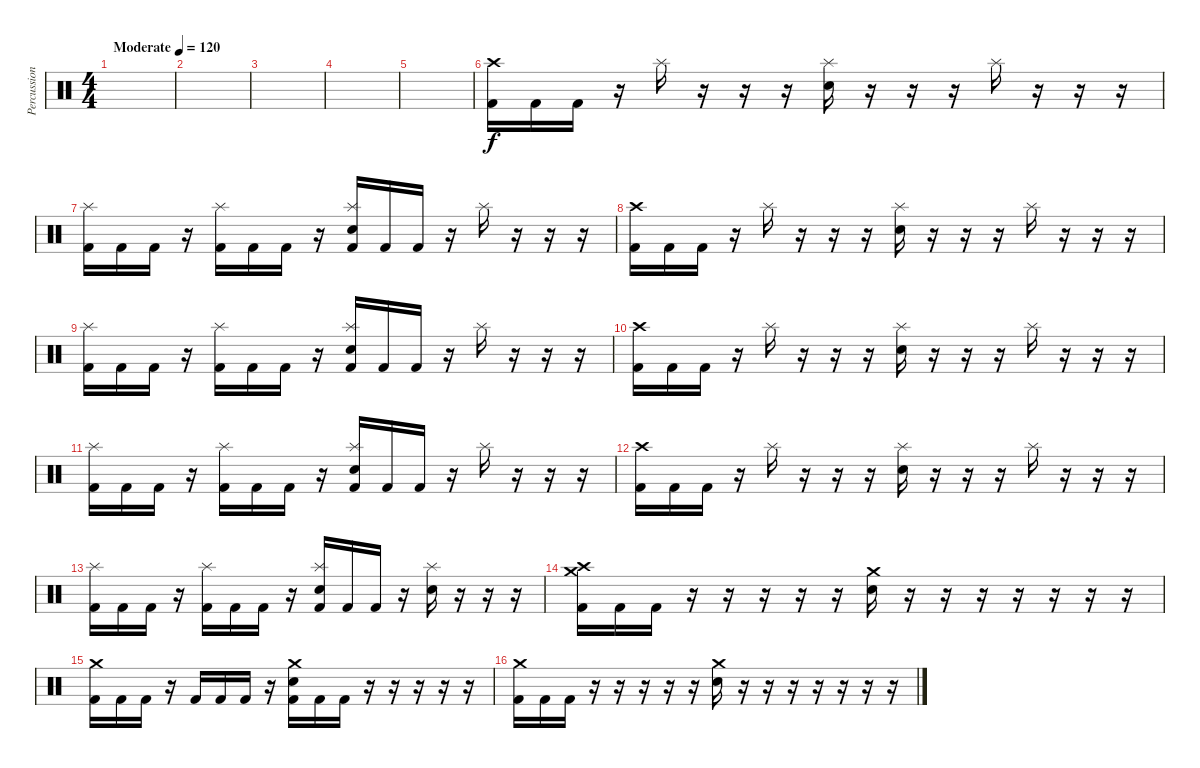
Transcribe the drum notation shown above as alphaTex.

\track ("Percussion" "Percussion") {instrument percussion}
\staff {score}
\articulation defaults
\ts (4 4)
\tempo (120 "Moderate")
\clef neutral
\ks c
|
|
|
|
|
("Crash high (hit)" "Kick (hit) 2").16 "Kick (hit) 2".16 "Kick (hit) 2".16 r.16 "Splash (hit)".16 r.16 r.16 r.16 ("Splash (hit)" "Electric Snare (hit)").16 r.16 r.16 r.16 "Splash (hit)".16 r.16 r.16 r.16 |
("Splash (hit)" "Kick (hit) 2").16 "Kick (hit) 2".16 "Kick (hit) 2".16 r.16 ("Splash (hit)" "Kick (hit) 2").16 "Kick (hit) 2".16 "Kick (hit) 2".16 r.16 ("Splash (hit)" "Electric Snare (hit)" "Kick (hit) 2").16 "Kick (hit) 2".16 "Kick (hit) 2".16 r.16 "Splash (hit)".16 r.16 r.16 r.16 |
("Crash high (hit)" "Kick (hit) 2").16 "Kick (hit) 2".16 "Kick (hit) 2".16 r.16 "Splash (hit)".16 r.16 r.16 r.16 ("Splash (hit)" "Electric Snare (hit)").16 r.16 r.16 r.16 "Splash (hit)".16 r.16 r.16 r.16 |
("Splash (hit)" "Kick (hit) 2").16 "Kick (hit) 2".16 "Kick (hit) 2".16 r.16 ("Splash (hit)" "Kick (hit) 2").16 "Kick (hit) 2".16 "Kick (hit) 2".16 r.16 ("Splash (hit)" "Electric Snare (hit)" "Kick (hit) 2").16 "Kick (hit) 2".16 "Kick (hit) 2".16 r.16 "Splash (hit)".16 r.16 r.16 r.16 |
("Crash high (hit)" "Kick (hit) 2").16 "Kick (hit) 2".16 "Kick (hit) 2".16 r.16 "Splash (hit)".16 r.16 r.16 r.16 ("Splash (hit)" "Electric Snare (hit)").16 r.16 r.16 r.16 "Splash (hit)".16 r.16 r.16 r.16 |
("Splash (hit)" "Kick (hit) 2").16 "Kick (hit) 2".16 "Kick (hit) 2".16 r.16 ("Splash (hit)" "Kick (hit) 2").16 "Kick (hit) 2".16 "Kick (hit) 2".16 r.16 ("Splash (hit)" "Electric Snare (hit)" "Kick (hit) 2").16 "Kick (hit) 2".16 "Kick (hit) 2".16 r.16 "Splash (hit)".16 r.16 r.16 r.16 |
("Crash high (hit)" "Kick (hit) 2").16 "Kick (hit) 2".16 "Kick (hit) 2".16 r.16 "Splash (hit)".16 r.16 r.16 r.16 ("Splash (hit)" "Electric Snare (hit)").16 r.16 r.16 r.16 "Splash (hit)".16 r.16 r.16 r.16 |
("Splash (hit)" "Kick (hit) 2").16 "Kick (hit) 2".16 "Kick (hit) 2".16 r.16 ("Splash (hit)" "Kick (hit) 2").16 "Kick (hit) 2".16 "Kick (hit) 2".16 r.16 ("Splash (hit)" "Electric Snare (hit)" "Kick (hit) 2").16 "Kick (hit) 2".16 "Kick (hit) 2".16 r.16 ("Splash (hit)" "Electric Snare (hit)").16 r.16 r.16 r.16 |
("Crash medium (hit)" "Crash high (hit)" "Kick (hit) 2").16 "Kick (hit) 2".16 "Kick (hit) 2".16 r.16 r.16 r.16 r.16 r.16 ("Crash medium (hit)" "Electric Snare (hit)").16 r.16 r.16 r.16 r.16 r.16 r.16 r.16 |
("Crash medium (hit)" "Kick (hit) 2").16 "Kick (hit) 2".16 "Kick (hit) 2".16 r.16 "Kick (hit) 2".16 "Kick (hit) 2".16 "Kick (hit) 2".16 r.16 ("Crash medium (hit)" "Electric Snare (hit)" "Kick (hit) 2").16 "Kick (hit) 2".16 "Kick (hit) 2".16 r.16 r.16 r.16 r.16 r.16 |
("Crash medium (hit)" "Kick (hit) 2").16 "Kick (hit) 2".16 "Kick (hit) 2".16 r.16 r.16 r.16 r.16 r.16 ("Crash medium (hit)" "Electric Snare (hit)").16 r.16 r.16 r.16 r.16 r.16 r.16 r.16
